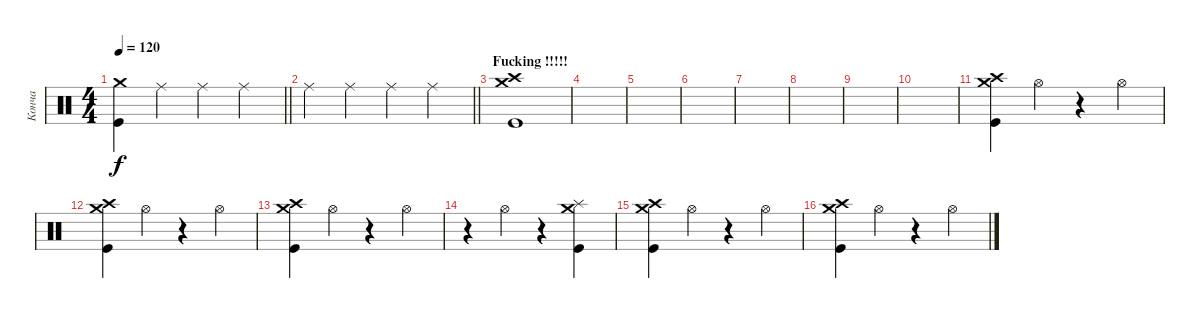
\track ("Конча" "Конча") {instrument percussion}
\staff {score}
\articulation defaults
\ts (4 4)
\tempo 120
\clef neutral
\barLineRight lightlight
\ks c
("Crash medium (hit)" "Kick (hit)").4{dy f} "Ride (middle)".4 "Ride (middle)".4 "Ride (middle)".4 |
\barLineRight lightlight "Ride (middle)".4 "Ride (middle)".4 "Ride (middle)".4 "Ride (middle)".4
|
\section ("" "Fucking !!!!!")
("Crash high (hit)" "Crash medium (hit)" "Kick (hit)").1 |
|
|
|
|
|
|
|
("Crash medium (hit)" "Crash high (hit)" "Kick (hit)").4 "Hi-Hat (open)".4 r.4 "Hi-Hat (open)".4 |
("Crash medium (hit)" "Crash high (hit)" "Kick (hit)").4 "Hi-Hat (open)".4 r.4 "Hi-Hat (open)".4 |
("Crash medium (hit)" "Crash high (hit)" "Kick (hit)").4 "Hi-Hat (open)".4 r.4 "Hi-Hat (open)".4 |
r.4 "Hi-Hat (open)".4 r.4 ("Crash medium (hit)" "Kick (hit)" "Splash (hit)").4 |
("Crash medium (hit)" "Crash high (hit)" "Kick (hit)").4 "Hi-Hat (open)".4 r.4 "Hi-Hat (open)".4 |
("Crash medium (hit)" "Crash high (hit)" "Kick (hit)").4 "Hi-Hat (open)".4 r.4 "Hi-Hat (open)".4
